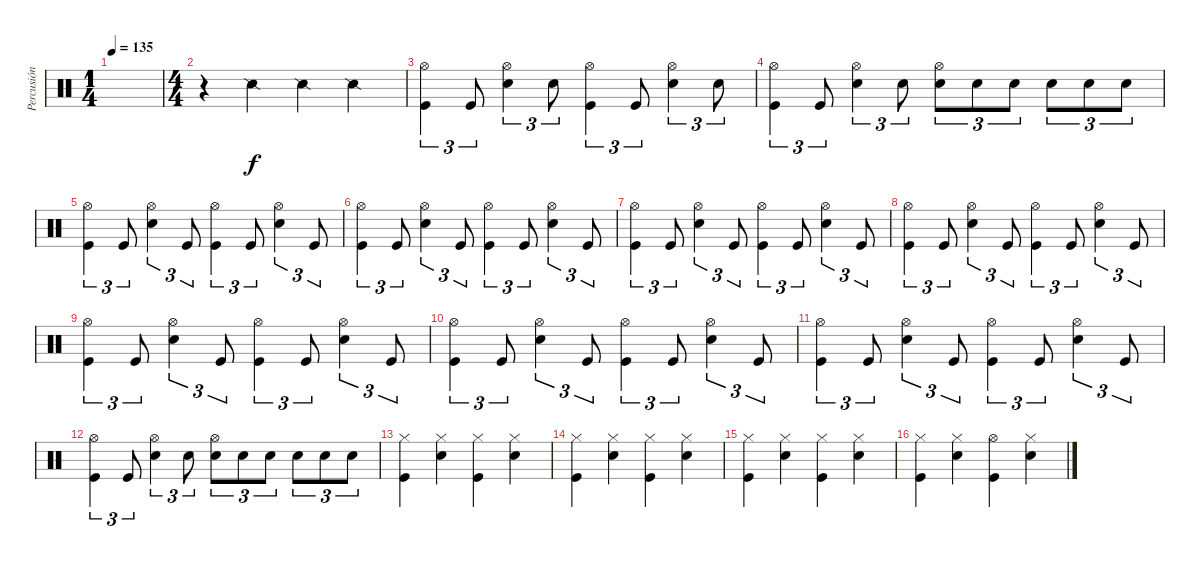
\track ("Percusión" "Percusión") {instrument percussion}
\staff {score}
\articulation defaults
\ts (1 4)
\tempo 135
\clef neutral
\ks c
|
\ts (4 4)
r.4 "Snare (side stick) 2".4 "Snare (side stick) 2".4 "Snare (side stick) 2".4 |
("Hi-Hat (open)" "Kick (hit)").4{tu (3 2)} "Kick (hit)".8{tu (3 2)} ("Hi-Hat (open)" "Snare (hit) 2").4{tu (3 2)} "Snare (hit) 2".8{tu (3 2)} ("Hi-Hat (open)" "Kick (hit)").4{tu (3 2)} "Kick (hit)".8{tu (3 2)} ("Hi-Hat (open)" "Snare (hit) 2").4{tu (3 2)} "Snare (hit) 2".8{tu (3 2)} |
("Hi-Hat (open)" "Kick (hit)").4{tu (3 2)} "Kick (hit)".8{tu (3 2)} ("Hi-Hat (open)" "Snare (hit) 2").4{tu (3 2)} "Snare (hit) 2".8{tu (3 2)} ("Hi-Hat (open)" "Snare (hit) 2").8{tu (3 2)} "Snare (hit) 2".8{tu (3 2)} "Snare (hit) 2".8{tu (3 2)} "Snare (hit) 2".8{tu (3 2)} "Snare (hit) 2".8{tu (3 2)} "Snare (hit) 2".8{tu (3 2)} |
("Hi-Hat (open)" "Kick (hit)").4{tu (3 2)} "Kick (hit)".8{tu (3 2)} ("Hi-Hat (open)" "Snare (hit) 2").4{tu (3 2)} "Kick (hit)".8{tu (3 2)} ("Hi-Hat (open)" "Kick (hit)").4{tu (3 2)} "Kick (hit)".8{tu (3 2)} ("Hi-Hat (open)" "Snare (hit) 2").4{tu (3 2)} "Kick (hit)".8{tu (3 2)} |
("Hi-Hat (open)" "Kick (hit)").4{tu (3 2)} "Kick (hit)".8{tu (3 2)} ("Hi-Hat (open)" "Snare (hit) 2").4{tu (3 2)} "Kick (hit)".8{tu (3 2)} ("Hi-Hat (open)" "Kick (hit)").4{tu (3 2)} "Kick (hit)".8{tu (3 2)} ("Hi-Hat (open)" "Snare (hit) 2").4{tu (3 2)} "Kick (hit)".8{tu (3 2)} |
("Hi-Hat (open)" "Kick (hit)").4{tu (3 2)} "Kick (hit)".8{tu (3 2)} ("Hi-Hat (open)" "Snare (hit) 2").4{tu (3 2)} "Kick (hit)".8{tu (3 2)} ("Hi-Hat (open)" "Kick (hit)").4{tu (3 2)} "Kick (hit)".8{tu (3 2)} ("Hi-Hat (open)" "Snare (hit) 2").4{tu (3 2)} "Kick (hit)".8{tu (3 2)} |
("Hi-Hat (open)" "Kick (hit)").4{tu (3 2)} "Kick (hit)".8{tu (3 2)} ("Hi-Hat (open)" "Snare (hit) 2").4{tu (3 2)} "Kick (hit)".8{tu (3 2)} ("Hi-Hat (open)" "Kick (hit)").4{tu (3 2)} "Kick (hit)".8{tu (3 2)} ("Hi-Hat (open)" "Snare (hit) 2").4{tu (3 2)} "Kick (hit)".8{tu (3 2)} |
("Hi-Hat (open)" "Kick (hit)").4{tu (3 2)} "Kick (hit)".8{tu (3 2)} ("Hi-Hat (open)" "Snare (hit) 2").4{tu (3 2)} "Kick (hit)".8{tu (3 2)} ("Hi-Hat (open)" "Kick (hit)").4{tu (3 2)} "Kick (hit)".8{tu (3 2)} ("Hi-Hat (open)" "Snare (hit) 2").4{tu (3 2)} "Kick (hit)".8{tu (3 2)} |
("Hi-Hat (open)" "Kick (hit)").4{tu (3 2)} "Kick (hit)".8{tu (3 2)} ("Hi-Hat (open)" "Snare (hit) 2").4{tu (3 2)} "Kick (hit)".8{tu (3 2)} ("Hi-Hat (open)" "Kick (hit)").4{tu (3 2)} "Kick (hit)".8{tu (3 2)} ("Hi-Hat (open)" "Snare (hit) 2").4{tu (3 2)} "Kick (hit)".8{tu (3 2)} |
("Hi-Hat (open)" "Kick (hit)").4{tu (3 2)} "Kick (hit)".8{tu (3 2)} ("Hi-Hat (open)" "Snare (hit) 2").4{tu (3 2)} "Kick (hit)".8{tu (3 2)} ("Hi-Hat (open)" "Kick (hit)").4{tu (3 2)} "Kick (hit)".8{tu (3 2)} ("Hi-Hat (open)" "Snare (hit) 2").4{tu (3 2)} "Kick (hit)".8{tu (3 2)} |
("Hi-Hat (open)" "Kick (hit)").4{tu (3 2)} "Kick (hit)".8{tu (3 2)} ("Hi-Hat (open)" "Snare (hit) 2").4{tu (3 2)} "Snare (hit) 2".8{tu (3 2)} ("Hi-Hat (open)" "Snare (hit) 2").8{tu (3 2)} "Snare (hit) 2".8{tu (3 2)} "Snare (hit) 2".8{tu (3 2)} "Snare (hit) 2".8{tu (3 2)} "Snare (hit) 2".8{tu (3 2)} "Snare (hit) 2".8{tu (3 2)} |
("Hi-Hat (closed)" "Kick (hit)").4 ("Hi-Hat (closed)" "Snare (hit) 2").4 ("Hi-Hat (closed)" "Kick (hit)").4 ("Hi-Hat (closed)" "Snare (hit) 2").4 |
("Hi-Hat (closed)" "Kick (hit)").4 ("Hi-Hat (closed)" "Snare (hit) 2").4 ("Hi-Hat (closed)" "Kick (hit)").4 ("Hi-Hat (closed)" "Snare (hit) 2").4 |
("Hi-Hat (closed)" "Kick (hit)").4 ("Hi-Hat (closed)" "Snare (hit) 2").4 ("Hi-Hat (closed)" "Kick (hit)").4 ("Hi-Hat (closed)" "Snare (hit) 2").4 |
("Hi-Hat (closed)" "Kick (hit)").4 ("Hi-Hat (closed)" "Snare (hit) 2").4 ("Hi-Hat (open)" "Kick (hit)").4 ("Hi-Hat (closed)" "Snare (hit) 2").4
